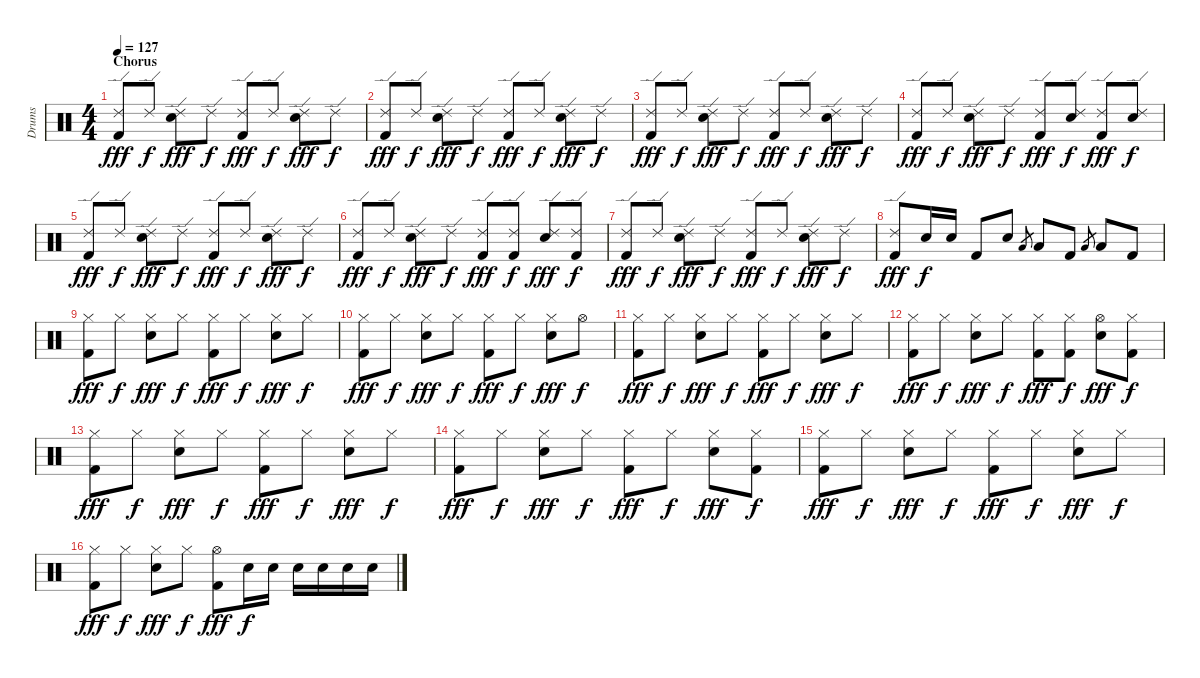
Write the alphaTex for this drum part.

\track ("Drums" "Drums") {instrument percussion}
\staff {score}
\articulation defaults
\ts (4 4)
\section ("" "Chorus")
\tempo 127
\clef neutral
\ks c
("Ride (edge) 2" "Kick (hit) 2").8{dy fff} "Ride (edge) 2".8{dy f} ("Ride (edge) 2" "Snare (hit) 2").8{dy fff} "Ride (edge) 2".8{dy f} ("Ride (edge) 2" "Kick (hit) 2").8{dy fff} "Ride (edge) 2".8{dy f} ("Ride (edge) 2" "Snare (hit) 2").8{dy fff} "Ride (edge) 2".8{dy f} |
("Ride (edge) 2" "Kick (hit) 2").8{dy fff} "Ride (edge) 2".8{dy f} ("Ride (edge) 2" "Snare (hit) 2").8{dy fff} "Ride (edge) 2".8{dy f} ("Ride (edge) 2" "Kick (hit) 2").8{dy fff} "Ride (edge) 2".8{dy f} ("Ride (edge) 2" "Snare (hit) 2").8{dy fff} "Ride (edge) 2".8{dy f} |
("Ride (edge) 2" "Kick (hit) 2").8{dy fff} "Ride (edge) 2".8{dy f} ("Ride (edge) 2" "Snare (hit) 2").8{dy fff} "Ride (edge) 2".8{dy f} ("Ride (edge) 2" "Kick (hit) 2").8{dy fff} "Ride (edge) 2".8{dy f} ("Ride (edge) 2" "Snare (hit) 2").8{dy fff} "Ride (edge) 2".8{dy f} |
("Ride (edge) 2" "Kick (hit) 2").8{dy fff} "Ride (edge) 2".8{dy f} ("Ride (edge) 2" "Snare (hit) 2").8{dy fff} "Ride (edge) 2".8{dy f} ("Ride (edge) 2" "Kick (hit) 2").8{dy fff} ("Ride (edge) 2" "Snare (hit) 2").8{dy f} ("Ride (edge) 2" "Kick (hit) 2").8{dy fff} ("Ride (edge) 2" "Snare (hit) 2").8{dy f} |
("Ride (edge) 2" "Kick (hit) 2").8{dy fff} "Ride (edge) 2".8{dy f} ("Ride (edge) 2" "Snare (hit) 2").8{dy fff} "Ride (edge) 2".8{dy f} ("Ride (edge) 2" "Kick (hit) 2").8{dy fff} "Ride (edge) 2".8{dy f} ("Ride (edge) 2" "Snare (hit) 2").8{dy fff} "Ride (edge) 2".8{dy f} |
("Ride (edge) 2" "Kick (hit) 2").8{dy fff} "Ride (edge) 2".8{dy f} ("Ride (edge) 2" "Snare (hit) 2").8{dy fff} "Ride (edge) 2".8{dy f} ("Ride (edge) 2" "Kick (hit) 2").8{dy fff} ("Ride (edge) 2" "Kick (hit) 2").8{dy f} ("Ride (edge) 2" "Snare (hit) 2").8{dy fff} ("Ride (edge) 2" "Kick (hit) 2").8{dy f} |
("Ride (edge) 2" "Kick (hit) 2").8{dy fff} "Ride (edge) 2".8{dy f} ("Ride (edge) 2" "Snare (hit) 2").8{dy fff} "Ride (edge) 2".8{dy f} ("Ride (edge) 2" "Kick (hit) 2").8{dy fff} "Ride (edge) 2".8{dy f} ("Ride (edge) 2" "Snare (hit) 2").8{dy fff} "Ride (edge) 2".8{dy f} |
("Ride (edge) 2" "Kick (hit) 2").8{dy fff} "Snare (hit) 2".16{dy f} "Snare (hit) 2".16 "Kick (hit) 2".8 "Snare (hit) 2".8 "Low Tom (hit)".8{gr} "Low Tom (hit)".8 "Kick (hit) 2".8 "Low Floor Tom (hit)".8{gr} "Low Floor Tom (hit)".8 "Kick (hit) 2".8 |
("Hi-Hat (closed)" "Kick (hit) 2").8{dy fff} "Hi-Hat (closed)".8{dy f} ("Hi-Hat (closed)" "Snare (hit) 2").8{dy fff} "Hi-Hat (closed)".8{dy f} ("Hi-Hat (closed)" "Kick (hit) 2").8{dy fff} "Hi-Hat (closed)".8{dy f} ("Hi-Hat (closed)" "Snare (hit) 2").8{dy fff} "Hi-Hat (closed)".8{dy f} |
("Hi-Hat (closed)" "Kick (hit) 2").8{dy fff} "Hi-Hat (closed)".8{dy f} ("Hi-Hat (closed)" "Snare (hit) 2").8{dy fff} "Hi-Hat (closed)".8{dy f} ("Hi-Hat (closed)" "Kick (hit) 2").8{dy fff} "Hi-Hat (closed)".8{dy f} ("Hi-Hat (closed)" "Snare (hit) 2").8{dy fff} "Hi-Hat (open)".8{dy f} |
("Hi-Hat (closed)" "Kick (hit) 2").8{dy fff} "Hi-Hat (closed)".8{dy f} ("Hi-Hat (closed)" "Snare (hit) 2").8{dy fff} "Hi-Hat (closed)".8{dy f} ("Hi-Hat (closed)" "Kick (hit) 2").8{dy fff} "Hi-Hat (closed)".8{dy f} ("Hi-Hat (closed)" "Snare (hit) 2").8{dy fff} "Hi-Hat (closed)".8{dy f} |
("Hi-Hat (closed)" "Kick (hit) 2").8{dy fff} "Hi-Hat (closed)".8{dy f} ("Hi-Hat (closed)" "Snare (hit) 2").8{dy fff} "Hi-Hat (closed)".8{dy f} ("Hi-Hat (closed)" "Kick (hit) 2").8{dy fff} ("Hi-Hat (closed)" "Kick (hit) 2").8{dy f} ("Hi-Hat (open)" "Snare (hit) 2").8{dy fff} ("Hi-Hat (closed)" "Kick (hit) 2").8{dy f} |
("Hi-Hat (closed)" "Kick (hit) 2").8{dy fff} "Hi-Hat (closed)".8{dy f} ("Hi-Hat (closed)" "Snare (hit) 2").8{dy fff} "Hi-Hat (closed)".8{dy f} ("Hi-Hat (closed)" "Kick (hit) 2").8{dy fff} "Hi-Hat (closed)".8{dy f} ("Hi-Hat (closed)" "Snare (hit) 2").8{dy fff} "Hi-Hat (closed)".8{dy f} |
("Hi-Hat (closed)" "Kick (hit) 2").8{dy fff} "Hi-Hat (closed)".8{dy f} ("Hi-Hat (closed)" "Snare (hit) 2").8{dy fff} "Hi-Hat (closed)".8{dy f} ("Hi-Hat (closed)" "Kick (hit) 2").8{dy fff} "Hi-Hat (closed)".8{dy f} ("Hi-Hat (closed)" "Snare (hit) 2").8{dy fff} ("Hi-Hat (closed)" "Kick (hit) 2").8{dy f} |
("Hi-Hat (closed)" "Kick (hit) 2").8{dy fff} "Hi-Hat (closed)".8{dy f} ("Hi-Hat (closed)" "Snare (hit) 2").8{dy fff} "Hi-Hat (closed)".8{dy f} ("Hi-Hat (closed)" "Kick (hit) 2").8{dy fff} "Hi-Hat (closed)".8{dy f} ("Hi-Hat (closed)" "Snare (hit) 2").8{dy fff} "Hi-Hat (closed)".8{dy f} |
("Hi-Hat (closed)" "Kick (hit) 2").8{dy fff} "Hi-Hat (closed)".8{dy f} ("Hi-Hat (closed)" "Snare (hit) 2").8{dy fff} "Hi-Hat (closed)".8{dy f} ("Hi-Hat (open)" "Kick (hit) 2").8{dy fff} "Snare (hit) 2".16{dy f} "Snare (hit) 2".16 "Snare (hit) 2".16 "Snare (hit) 2".16 "Snare (hit) 2".16 "Snare (hit) 2".16
